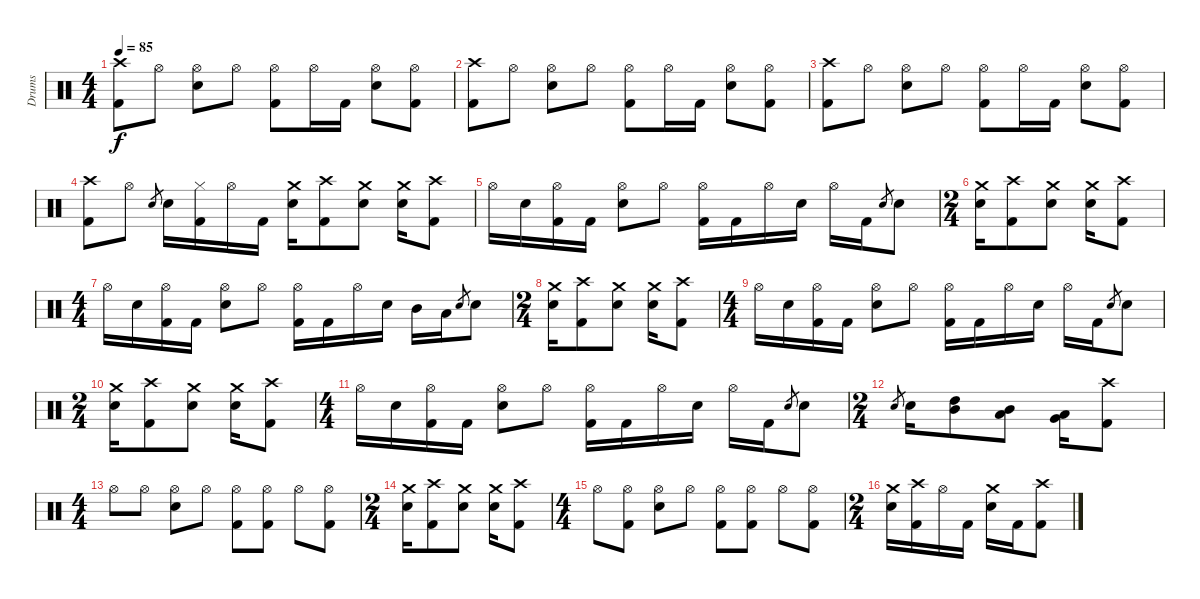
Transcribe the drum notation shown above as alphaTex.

\track ("Drums" "Drums") {instrument percussion}
\staff {score}
\articulation defaults
\ts (4 4)
\tempo 85
\clef neutral
\ks c
("Crash high (hit)" "Kick (hit) 2").8{dy f} "Hi-Hat (open)".8 ("Hi-Hat (open)" "Electric Snare (hit)").8 "Hi-Hat (open)".8 ("Hi-Hat (open)" "Kick (hit) 2").8 "Hi-Hat (open)".16 "Kick (hit) 2".16 ("Hi-Hat (open)" "Electric Snare (hit)").8 ("Hi-Hat (open)" "Kick (hit) 2").8 |
("Crash high (hit)" "Kick (hit) 2").8 "Hi-Hat (open)".8 ("Hi-Hat (open)" "Electric Snare (hit)").8 "Hi-Hat (open)".8 ("Hi-Hat (open)" "Kick (hit) 2").8 "Hi-Hat (open)".16 "Kick (hit) 2".16 ("Hi-Hat (open)" "Electric Snare (hit)").8 ("Hi-Hat (open)" "Kick (hit) 2").8 |
("Crash high (hit)" "Kick (hit) 2").8 "Hi-Hat (open)".8 ("Hi-Hat (open)" "Electric Snare (hit)").8 "Hi-Hat (open)".8 ("Hi-Hat (open)" "Kick (hit) 2").8 "Hi-Hat (open)".16 "Kick (hit) 2".16 ("Hi-Hat (open)" "Electric Snare (hit)").8 ("Hi-Hat (open)" "Kick (hit) 2").8 |
("Crash high (hit)" "Kick (hit) 2").8 "Hi-Hat (open)".8 "Electric Snare (hit)".8{gr} "Electric Snare (hit)".16 ("Hi-Hat (closed)" "Kick (hit) 2").16 "Hi-Hat (open)".16 "Kick (hit) 2".16 ("Crash medium (hit)" "Electric Snare (hit)").16 ("Crash high (hit)" "Kick (hit) 2").8 ("Crash medium (hit)" "Electric Snare (hit)").8 ("Crash medium (hit)" "Electric Snare (hit)").16 ("Crash high (hit)" "Kick (hit) 2").8 |
"Hi-Hat (open)".16 "Electric Snare (hit)".16 ("Hi-Hat (open)" "Kick (hit) 2").16 "Kick (hit) 2".16 ("Hi-Hat (open)" "Electric Snare (hit)").8 "Hi-Hat (open)".8 ("Hi-Hat (open)" "Kick (hit) 2").16 "Kick (hit) 2".16 "Hi-Hat (open)".16 "Electric Snare (hit)".16 "Hi-Hat (open)".16 "Kick (hit) 2".16 "Electric Snare (hit)".8{gr} "Electric Snare (hit)".8 |
\ts (2 4)
("Crash medium (hit)" "Electric Snare (hit)").16 ("Crash high (hit)" "Kick (hit) 2").8 ("Crash medium (hit)" "Electric Snare (hit)").8 ("Crash medium (hit)" "Electric Snare (hit)").16 ("Crash high (hit)" "Kick (hit) 2").8 |
\ts (4 4)
"Hi-Hat (open)".16 "Electric Snare (hit)".16 ("Hi-Hat (open)" "Kick (hit) 2").16 "Kick (hit) 2".16 ("Hi-Hat (open)" "Electric Snare (hit)").8 "Hi-Hat (open)".8 ("Hi-Hat (open)" "Kick (hit) 2").16 "Kick (hit) 2".16 "Hi-Hat (open)".16 "Electric Snare (hit)".16 "Mid Tom (hit)".16 "Low Tom (hit)".16 "Electric Snare (hit)".8{gr} "Electric Snare (hit)".8 |
\ts (2 4)
("Crash medium (hit)" "Electric Snare (hit)").16 ("Crash high (hit)" "Kick (hit) 2").8 ("Crash medium (hit)" "Electric Snare (hit)").8 ("Crash medium (hit)" "Electric Snare (hit)").16 ("Crash high (hit)" "Kick (hit) 2").8 |
\ts (4 4)
"Hi-Hat (open)".16 "Electric Snare (hit)".16 ("Hi-Hat (open)" "Kick (hit) 2").16 "Kick (hit) 2".16 ("Hi-Hat (open)" "Electric Snare (hit)").8 "Hi-Hat (open)".8 ("Hi-Hat (open)" "Kick (hit) 2").16 "Kick (hit) 2".16 "Hi-Hat (open)".16 "Electric Snare (hit)".16 "Hi-Hat (open)".16 "Kick (hit) 2".16 "Electric Snare (hit)".8{gr} "Electric Snare (hit)".8 |
\ts (2 4)
("Crash medium (hit)" "Electric Snare (hit)").16 ("Crash high (hit)" "Kick (hit) 2").8 ("Crash medium (hit)" "Electric Snare (hit)").8 ("Crash medium (hit)" "Electric Snare (hit)").16 ("Crash high (hit)" "Kick (hit) 2").8 |
\ts (4 4)
"Hi-Hat (open)".16 "Electric Snare (hit)".16 ("Hi-Hat (open)" "Kick (hit) 2").16 "Kick (hit) 2".16 ("Hi-Hat (open)" "Electric Snare (hit)").8 "Hi-Hat (open)".8 ("Hi-Hat (open)" "Kick (hit) 2").16 "Kick (hit) 2".16 "Hi-Hat (open)".16 "Electric Snare (hit)".16 "Hi-Hat (open)".16 "Kick (hit) 2".16 "Electric Snare (hit)".8{gr} "Electric Snare (hit)".8 |
\ts (2 4)
"Electric Snare (hit)".8{gr} "Electric Snare (hit)".16 ("High Tom (hit)" "Mid Tom (hit)").8 ("Mid Tom (hit)" "Low Tom (hit)").8 ("Low Tom (hit)" "Very Low Tom (hit)").16 ("Crash high (hit)" "Kick (hit) 2").8 |
\ts (4 4)
"Hi-Hat (open)".8 "Hi-Hat (open)".8 ("Hi-Hat (open)" "Electric Snare (hit)").8 "Hi-Hat (open)".8 ("Hi-Hat (open)" "Kick (hit) 2").8 ("Hi-Hat (open)" "Kick (hit) 2").8 "Hi-Hat (open)".8 ("Hi-Hat (open)" "Kick (hit) 2").8 |
\ts (2 4)
("Crash medium (hit)" "Electric Snare (hit)").16 ("Crash high (hit)" "Kick (hit) 2").8 ("Crash medium (hit)" "Electric Snare (hit)").8 ("Crash medium (hit)" "Electric Snare (hit)").16 ("Crash high (hit)" "Kick (hit) 2").8 |
\ts (4 4)
"Hi-Hat (open)".8 ("Hi-Hat (open)" "Kick (hit) 2").8 ("Hi-Hat (open)" "Electric Snare (hit)").8 "Hi-Hat (open)".8 ("Hi-Hat (open)" "Kick (hit) 2").8 ("Hi-Hat (open)" "Kick (hit) 2").8 "Hi-Hat (open)".8 ("Hi-Hat (open)" "Kick (hit) 2").8 |
\ts (2 4)
("Crash medium (hit)" "Electric Snare (hit)").16 ("Crash high (hit)" "Kick (hit) 2").16 "Hi-Hat (open)".16 "Kick (hit) 2".16 ("Crash medium (hit)" "Electric Snare (hit)").16 "Kick (hit) 2".16 ("Crash high (hit)" "Kick (hit) 2").8
